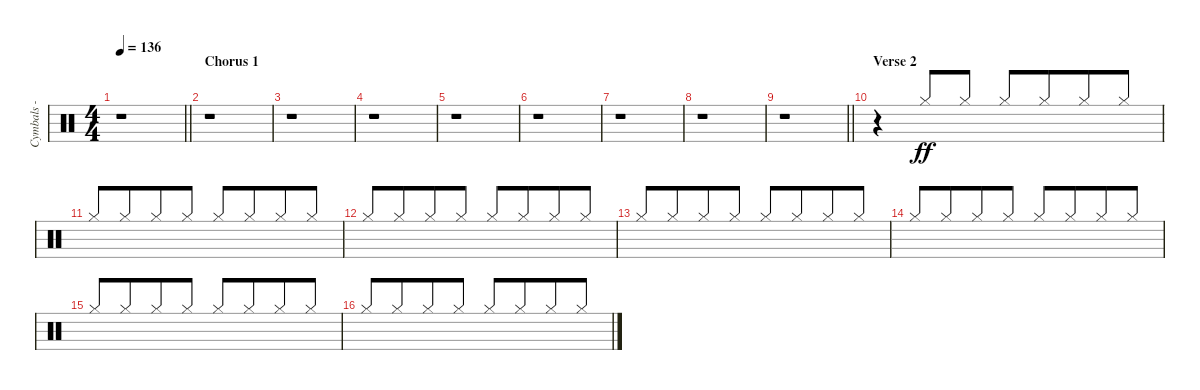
\track ("Cymbals - hi-hat" "Cymbals - ") {instrument percussion}
\staff {score}
\articulation defaults
\ts (4 4)
\tempo 136
\clef neutral
\barLineRight lightlight
\ks c
r.1{dy f} |
\section ("" "Chorus 1")
r.1 |
r.1 |
r.1 |
r.1 |
r.1 |
r.1 |
r.1 |
\barLineRight lightlight
r.1 |
\section ("" "Verse 2")
r.4 "Hi-Hat (closed)".8{dy ff beam Up} "Hi-Hat (closed)".8{beam Up} "Hi-Hat (closed)".8{beam Up} "Hi-Hat (closed)".8{beam Up beam merge} "Hi-Hat (closed)".8{beam Up} "Hi-Hat (closed)".8{beam Up} |
"Hi-Hat (closed)".8{beam Up} "Hi-Hat (closed)".8{beam Up beam merge} "Hi-Hat (closed)".8{beam Up} "Hi-Hat (closed)".8{beam Up} "Hi-Hat (closed)".8{beam Up} "Hi-Hat (closed)".8{beam Up beam merge} "Hi-Hat (closed)".8{beam Up} "Hi-Hat (closed)".8{beam Up} |
"Hi-Hat (closed)".8{beam Up} "Hi-Hat (closed)".8{beam Up beam merge} "Hi-Hat (closed)".8{beam Up} "Hi-Hat (closed)".8{beam Up} "Hi-Hat (closed)".8{beam Up} "Hi-Hat (closed)".8{beam Up beam merge} "Hi-Hat (closed)".8{beam Up} "Hi-Hat (closed)".8{beam Up} |
"Hi-Hat (closed)".8{beam Up} "Hi-Hat (closed)".8{beam Up beam merge} "Hi-Hat (closed)".8{beam Up} "Hi-Hat (closed)".8{beam Up} "Hi-Hat (closed)".8{beam Up} "Hi-Hat (closed)".8{beam Up beam merge} "Hi-Hat (closed)".8{beam Up} "Hi-Hat (closed)".8{beam Up} |
"Hi-Hat (closed)".8{beam Up} "Hi-Hat (closed)".8{beam Up beam merge} "Hi-Hat (closed)".8{beam Up} "Hi-Hat (closed)".8{beam Up} "Hi-Hat (closed)".8{beam Up} "Hi-Hat (closed)".8{beam Up beam merge} "Hi-Hat (closed)".8{beam Up} "Hi-Hat (closed)".8{beam Up} |
"Hi-Hat (closed)".8{beam Up} "Hi-Hat (closed)".8{beam Up beam merge} "Hi-Hat (closed)".8{beam Up} "Hi-Hat (closed)".8{beam Up} "Hi-Hat (closed)".8{beam Up} "Hi-Hat (closed)".8{beam Up beam merge} "Hi-Hat (closed)".8{beam Up} "Hi-Hat (closed)".8{beam Up} |
"Hi-Hat (closed)".8{beam Up} "Hi-Hat (closed)".8{beam Up beam merge} "Hi-Hat (closed)".8{beam Up} "Hi-Hat (closed)".8{beam Up} "Hi-Hat (closed)".8{beam Up} "Hi-Hat (closed)".8{beam Up beam merge} "Hi-Hat (closed)".8{beam Up} "Hi-Hat (closed)".8{beam Up}
